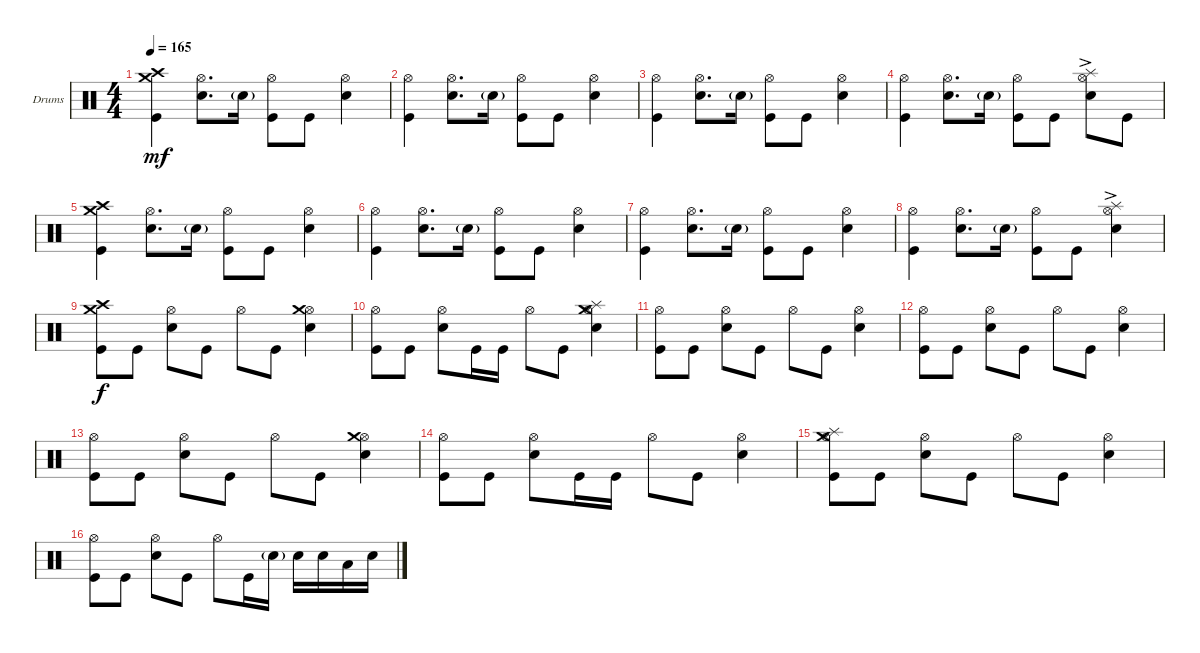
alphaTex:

\defaultSystemsLayout 4
\bracketExtendMode groupsimilarinstruments
\firstSystemTrackNameOrientation horizontal
\otherSystemsTrackNameOrientation horizontal
\track ("Drumkit" "Drums") {instrument percussion}
\staff {score}
\articulation defaults
\ts (4 4)
\tempo 165
\clef neutral
\ks c
("Kick (hit)" "Crash high (hit)" "Crash medium (hit)").4{dy mf} ("Snare (hit) 2" "Hi-Hat (open)").8{d} "Snare (hit) 2"{g}.16 ("Kick (hit)" "Hi-Hat (open)").8 "Kick (hit)".8 ("Snare (hit) 2" "Hi-Hat (open)").4 |
("Kick (hit)" "Hi-Hat (open)").4 ("Snare (hit) 2" "Hi-Hat (open)").8{d} "Snare (hit) 2"{g}.16 ("Kick (hit)" "Hi-Hat (open)").8 "Kick (hit)".8 ("Snare (hit) 2" "Hi-Hat (open)").4 |
("Kick (hit)" "Hi-Hat (open)").4 ("Snare (hit) 2" "Hi-Hat (open)").8{d} "Snare (hit) 2"{g}.16 ("Kick (hit)" "Hi-Hat (open)").8 "Kick (hit)".8 ("Snare (hit) 2" "Hi-Hat (open)").4 |
("Kick (hit)" "Hi-Hat (open)").4 ("Snare (hit) 2" "Hi-Hat (open)").8{d} "Snare (hit) 2"{g}.16 ("Kick (hit)" "Hi-Hat (open)").8 "Kick (hit)".8 ("Snare (hit) 2" "Hi-Hat (open)"{ac} "Splash (hit)").8 "Kick (hit)".8 |
("Kick (hit)" "Crash high (hit)" "Crash medium (hit)").4 ("Snare (hit) 2" "Hi-Hat (open)").8{d} "Snare (hit) 2"{g}.16 ("Kick (hit)" "Hi-Hat (open)").8 "Kick (hit)".8 ("Snare (hit) 2" "Hi-Hat (open)").4 |
("Kick (hit)" "Hi-Hat (open)").4 ("Snare (hit) 2" "Hi-Hat (open)").8{d} "Snare (hit) 2"{g}.16 ("Kick (hit)" "Hi-Hat (open)").8 "Kick (hit)".8 ("Snare (hit) 2" "Hi-Hat (open)").4 |
("Kick (hit)" "Hi-Hat (open)").4 ("Snare (hit) 2" "Hi-Hat (open)").8{d} "Snare (hit) 2"{g}.16 ("Kick (hit)" "Hi-Hat (open)").8 "Kick (hit)".8 ("Snare (hit) 2" "Hi-Hat (open)").4 |
("Kick (hit)" "Hi-Hat (open)").4 ("Snare (hit) 2" "Hi-Hat (open)").8{d} "Snare (hit) 2"{g}.16 ("Kick (hit)" "Hi-Hat (open)").8 "Kick (hit)".8 ("Snare (hit) 2" "Hi-Hat (open)"{ac} "Splash (hit)").4 |
("Kick (hit)" "Crash high (hit)" "Crash medium (hit)").8{dy f} "Kick (hit)".8 ("Hi-Hat (open)" "Snare (hit) 2").8 "Kick (hit)".8 "Hi-Hat (open)".8 "Kick (hit)".8 ("Snare (hit) 2" "Hi-Hat (open)" "Crash medium (hit)").4 |
("Kick (hit)" "Hi-Hat (open)").8 "Kick (hit)".8 ("Hi-Hat (open)" "Snare (hit) 2").8 "Kick (hit)".16 "Kick (hit)".16 "Hi-Hat (open)".8 "Kick (hit)".8 ("Snare (hit) 2" "Hi-Hat (open)" "Crash medium (hit)" "Splash (hit)").4 |
("Kick (hit)" "Hi-Hat (open)").8 "Kick (hit)".8 ("Hi-Hat (open)" "Snare (hit) 2").8 "Kick (hit)".8 "Hi-Hat (open)".8 "Kick (hit)".8 ("Snare (hit) 2" "Hi-Hat (open)").4 |
("Kick (hit)" "Hi-Hat (open)").8 "Kick (hit)".8 ("Hi-Hat (open)" "Snare (hit) 2").8 "Kick (hit)".8 "Hi-Hat (open)".8 "Kick (hit)".8 ("Snare (hit) 2" "Hi-Hat (open)").4 |
("Kick (hit)" "Hi-Hat (open)").8 "Kick (hit)".8 ("Hi-Hat (open)" "Snare (hit) 2").8 "Kick (hit)".8 "Hi-Hat (open)".8 "Kick (hit)".8 ("Snare (hit) 2" "Hi-Hat (open)" "Crash medium (hit)").4 |
("Kick (hit)" "Hi-Hat (open)").8 "Kick (hit)".8 ("Hi-Hat (open)" "Snare (hit) 2").8 "Kick (hit)".16 "Kick (hit)".16 "Hi-Hat (open)".8 "Kick (hit)".8 ("Snare (hit) 2" "Hi-Hat (open)").4 |
("Kick (hit)" "Hi-Hat (open)" "Splash (hit)" "Crash medium (hit)").8 "Kick (hit)".8 ("Hi-Hat (open)" "Snare (hit) 2").8 "Kick (hit)".8 "Hi-Hat (open)".8 "Kick (hit)".8 ("Snare (hit) 2" "Hi-Hat (open)").4 |
("Kick (hit)" "Hi-Hat (open)").8 "Kick (hit)".8 ("Hi-Hat (open)" "Snare (hit) 2").8 "Kick (hit)".8 "Hi-Hat (open)".8 "Kick (hit)".16 "Snare (hit) 2"{g}.16 "Snare (hit) 2".16 "Snare (hit) 2".16 "Low Tom (hit)".16 "Snare (hit) 2".16
